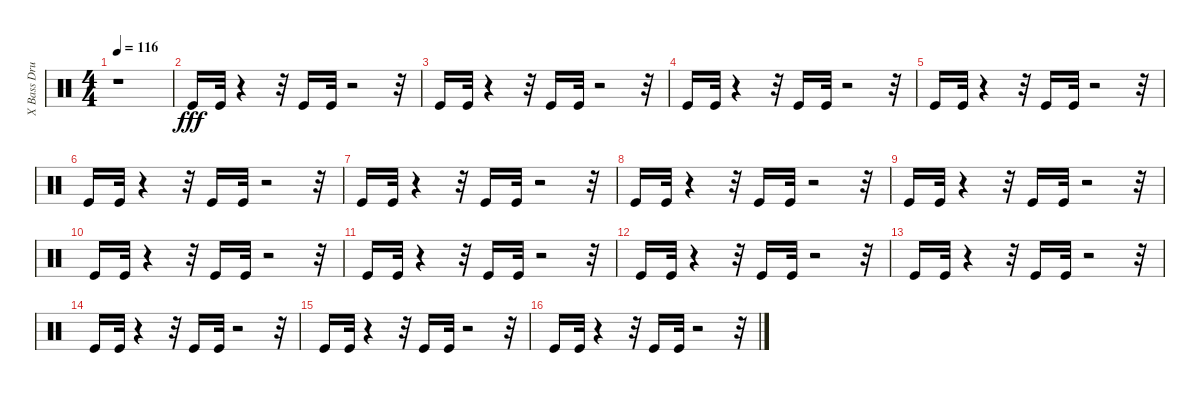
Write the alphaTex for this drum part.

\track ("X Bass Drum         " "X Bass Dru") {instrument percussion}
\staff {score}
\articulation defaults
\ts (4 4)
\tempo 116
\clef neutral
\ks c
r.1{dy fff} |
"Kick (hit)".16 "Kick (hit)".32 r.4 r.32 "Kick (hit)".16 "Kick (hit)".32 r.2 r.32 |
"Kick (hit)".16 "Kick (hit)".32 r.4 r.32 "Kick (hit)".16 "Kick (hit)".32 r.2 r.32 |
"Kick (hit)".16 "Kick (hit)".32 r.4 r.32 "Kick (hit)".16 "Kick (hit)".32 r.2 r.32 |
"Kick (hit)".16 "Kick (hit)".32 r.4 r.32 "Kick (hit)".16 "Kick (hit)".32 r.2 r.32 |
"Kick (hit)".16 "Kick (hit)".32 r.4 r.32 "Kick (hit)".16 "Kick (hit)".32 r.2 r.32 |
"Kick (hit)".16 "Kick (hit)".32 r.4 r.32 "Kick (hit)".16 "Kick (hit)".32 r.2 r.32 |
"Kick (hit)".16 "Kick (hit)".32 r.4 r.32 "Kick (hit)".16 "Kick (hit)".32 r.2 r.32 |
"Kick (hit)".16 "Kick (hit)".32 r.4 r.32 "Kick (hit)".16 "Kick (hit)".32 r.2 r.32 |
"Kick (hit)".16 "Kick (hit)".32 r.4 r.32 "Kick (hit)".16 "Kick (hit)".32 r.2 r.32 |
"Kick (hit)".16 "Kick (hit)".32 r.4 r.32 "Kick (hit)".16 "Kick (hit)".32 r.2 r.32 |
"Kick (hit)".16 "Kick (hit)".32 r.4 r.32 "Kick (hit)".16 "Kick (hit)".32 r.2 r.32 |
"Kick (hit)".16 "Kick (hit)".32 r.4 r.32 "Kick (hit)".16 "Kick (hit)".32 r.2 r.32 |
"Kick (hit)".16 "Kick (hit)".32 r.4 r.32 "Kick (hit)".16 "Kick (hit)".32 r.2 r.32 |
"Kick (hit)".16 "Kick (hit)".32 r.4 r.32 "Kick (hit)".16 "Kick (hit)".32 r.2 r.32 |
"Kick (hit)".16 "Kick (hit)".32 r.4 r.32 "Kick (hit)".16 "Kick (hit)".32 r.2 r.32
